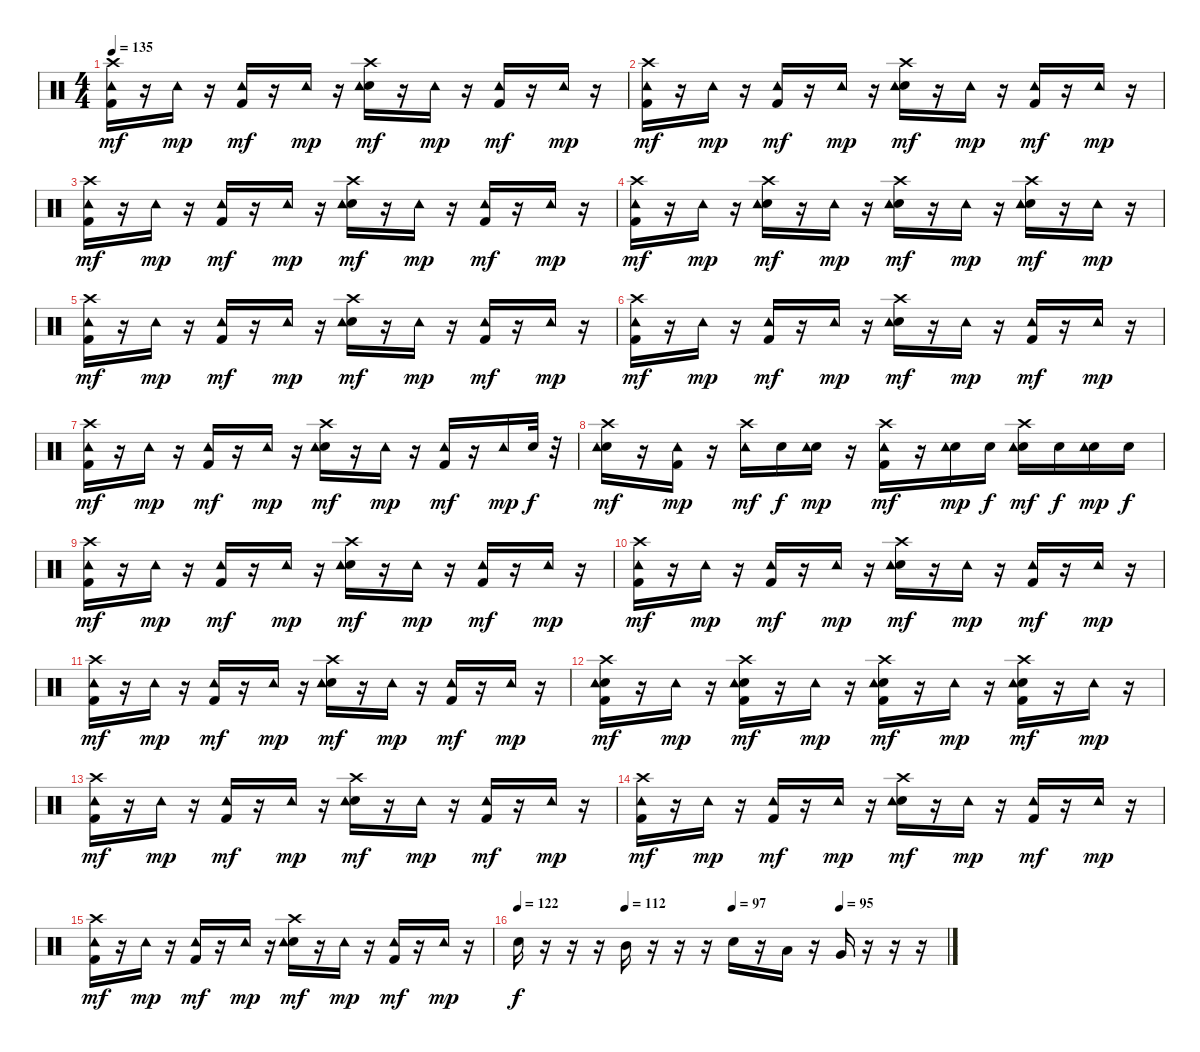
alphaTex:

\track (" " " ") {instrument percussion}
\staff {score}
\articulation defaults
\ts (4 4)
\tempo 135
\clef neutral
\ks c
("Crash high (hit)" "Tambourine (hit)" "Kick (hit) 2").16{dy mf} r.16 "Tambourine (hit)".16{dy mp} r.16 ("Tambourine (hit)" "Kick (hit) 2").16{dy mf} r.16 "Tambourine (hit)".16{dy mp} r.16 ("Crash high (hit)" "Electric Snare (hit)" "Tambourine (hit)").16{dy mf} r.16 "Tambourine (hit)".16{dy mp} r.16 ("Tambourine (hit)" "Kick (hit) 2").16{dy mf} r.16 "Tambourine (hit)".16{dy mp} r.16 |
("Crash high (hit)" "Tambourine (hit)" "Kick (hit) 2").16{dy mf} r.16 "Tambourine (hit)".16{dy mp} r.16 ("Tambourine (hit)" "Kick (hit) 2").16{dy mf} r.16 "Tambourine (hit)".16{dy mp} r.16 ("Crash high (hit)" "Electric Snare (hit)" "Tambourine (hit)").16{dy mf} r.16 "Tambourine (hit)".16{dy mp} r.16 ("Tambourine (hit)" "Kick (hit) 2").16{dy mf} r.16 "Tambourine (hit)".16{dy mp} r.16 |
("Crash high (hit)" "Tambourine (hit)" "Kick (hit) 2").16{dy mf} r.16 "Tambourine (hit)".16{dy mp} r.16 ("Tambourine (hit)" "Kick (hit) 2").16{dy mf} r.16 "Tambourine (hit)".16{dy mp} r.16 ("Crash high (hit)" "Electric Snare (hit)" "Tambourine (hit)").16{dy mf} r.16 "Tambourine (hit)".16{dy mp} r.16 ("Tambourine (hit)" "Kick (hit) 2").16{dy mf} r.16 "Tambourine (hit)".16{dy mp} r.16 |
("Crash high (hit)" "Tambourine (hit)" "Kick (hit) 2").16{dy mf} r.16 "Tambourine (hit)".16{dy mp} r.16 ("Crash high (hit)" "Electric Snare (hit)" "Tambourine (hit)").16{dy mf} r.16 "Tambourine (hit)".16{dy mp} r.16 ("Crash high (hit)" "Electric Snare (hit)" "Tambourine (hit)").16{dy mf} r.16 "Tambourine (hit)".16{dy mp} r.16 ("Crash high (hit)" "Electric Snare (hit)" "Tambourine (hit)").16{dy mf} r.16 "Tambourine (hit)".16{dy mp} r.16 |
("Crash high (hit)" "Tambourine (hit)" "Kick (hit) 2").16{dy mf} r.16 "Tambourine (hit)".16{dy mp} r.16 ("Tambourine (hit)" "Kick (hit) 2").16{dy mf} r.16 "Tambourine (hit)".16{dy mp} r.16 ("Crash high (hit)" "Electric Snare (hit)" "Tambourine (hit)").16{dy mf} r.16 "Tambourine (hit)".16{dy mp} r.16 ("Tambourine (hit)" "Kick (hit) 2").16{dy mf} r.16 "Tambourine (hit)".16{dy mp} r.16 |
("Crash high (hit)" "Tambourine (hit)" "Kick (hit) 2").16{dy mf} r.16 "Tambourine (hit)".16{dy mp} r.16 ("Tambourine (hit)" "Kick (hit) 2").16{dy mf} r.16 "Tambourine (hit)".16{dy mp} r.16 ("Crash high (hit)" "Electric Snare (hit)" "Tambourine (hit)").16{dy mf} r.16 "Tambourine (hit)".16{dy mp} r.16 ("Tambourine (hit)" "Kick (hit) 2").16{dy mf} r.16 "Tambourine (hit)".16{dy mp} r.16 |
("Crash high (hit)" "Tambourine (hit)" "Kick (hit) 2").16{dy mf} r.16 "Tambourine (hit)".16{dy mp} r.16 ("Tambourine (hit)" "Kick (hit) 2").16{dy mf} r.16 "Tambourine (hit)".16{dy mp} r.16 ("Crash high (hit)" "Electric Snare (hit)" "Tambourine (hit)").16{dy mf} r.16 "Tambourine (hit)".16{dy mp} r.16 ("Tambourine (hit)" "Kick (hit) 2").16{dy mf} r.16 "Tambourine (hit)".16{dy mp} "Electric Snare (hit)".32{dy f} r.32 |
("Crash high (hit)" "Electric Snare (hit)" "Tambourine (hit)").16{dy mf} r.16 ("Tambourine (hit)" "Kick (hit) 2").16{dy mp} r.16 ("Crash high (hit)" "Tambourine (hit)").16{dy mf} "Electric Snare (hit)".16{dy f} ("Electric Snare (hit)" "Tambourine (hit)").16{dy mp} r.16 ("Crash high (hit)" "Tambourine (hit)" "Kick (hit) 2").16{dy mf} r.16 ("Electric Snare (hit)" "Tambourine (hit)").16{dy mp} "Electric Snare (hit)".16{dy f} ("Crash high (hit)" "Electric Snare (hit)" "Tambourine (hit)").16{dy mf} "Electric Snare (hit)".16{dy f} ("Electric Snare (hit)" "Tambourine (hit)").16{dy mp} "Electric Snare (hit)".16{dy f} |
("Crash high (hit)" "Tambourine (hit)" "Kick (hit) 2").16{dy mf} r.16 "Tambourine (hit)".16{dy mp} r.16 ("Tambourine (hit)" "Kick (hit) 2").16{dy mf} r.16 "Tambourine (hit)".16{dy mp} r.16 ("Crash high (hit)" "Electric Snare (hit)" "Tambourine (hit)").16{dy mf} r.16 "Tambourine (hit)".16{dy mp} r.16 ("Tambourine (hit)" "Kick (hit) 2").16{dy mf} r.16 "Tambourine (hit)".16{dy mp} r.16 |
("Crash high (hit)" "Tambourine (hit)" "Kick (hit) 2").16{dy mf} r.16 "Tambourine (hit)".16{dy mp} r.16 ("Tambourine (hit)" "Kick (hit) 2").16{dy mf} r.16 "Tambourine (hit)".16{dy mp} r.16 ("Crash high (hit)" "Electric Snare (hit)" "Tambourine (hit)").16{dy mf} r.16 "Tambourine (hit)".16{dy mp} r.16 ("Tambourine (hit)" "Kick (hit) 2").16{dy mf} r.16 "Tambourine (hit)".16{dy mp} r.16 |
("Crash high (hit)" "Tambourine (hit)" "Kick (hit) 2").16{dy mf} r.16 "Tambourine (hit)".16{dy mp} r.16 ("Tambourine (hit)" "Kick (hit) 2").16{dy mf} r.16 "Tambourine (hit)".16{dy mp} r.16 ("Crash high (hit)" "Electric Snare (hit)" "Tambourine (hit)").16{dy mf} r.16 "Tambourine (hit)".16{dy mp} r.16 ("Tambourine (hit)" "Kick (hit) 2").16{dy mf} r.16 "Tambourine (hit)".16{dy mp} r.16 |
("Crash high (hit)" "Electric Snare (hit)" "Tambourine (hit)" "Kick (hit) 2").16{dy mf} r.16 "Tambourine (hit)".16{dy mp} r.16 ("Crash high (hit)" "Electric Snare (hit)" "Tambourine (hit)" "Kick (hit) 2").16{dy mf} r.16 "Tambourine (hit)".16{dy mp} r.16 ("Crash high (hit)" "Electric Snare (hit)" "Tambourine (hit)" "Kick (hit) 2").16{dy mf} r.16 "Tambourine (hit)".16{dy mp} r.16 ("Crash high (hit)" "Electric Snare (hit)" "Tambourine (hit)" "Kick (hit) 2").16{dy mf} r.16 "Tambourine (hit)".16{dy mp} r.16 |
("Crash high (hit)" "Tambourine (hit)" "Kick (hit) 2").16{dy mf} r.16 "Tambourine (hit)".16{dy mp} r.16 ("Tambourine (hit)" "Kick (hit) 2").16{dy mf} r.16 "Tambourine (hit)".16{dy mp} r.16 ("Crash high (hit)" "Electric Snare (hit)" "Tambourine (hit)").16{dy mf} r.16 "Tambourine (hit)".16{dy mp} r.16 ("Tambourine (hit)" "Kick (hit) 2").16{dy mf} r.16 "Tambourine (hit)".16{dy mp} r.16 |
("Crash high (hit)" "Tambourine (hit)" "Kick (hit) 2").16{dy mf} r.16 "Tambourine (hit)".16{dy mp} r.16 ("Tambourine (hit)" "Kick (hit) 2").16{dy mf} r.16 "Tambourine (hit)".16{dy mp} r.16 ("Crash high (hit)" "Electric Snare (hit)" "Tambourine (hit)").16{dy mf} r.16 "Tambourine (hit)".16{dy mp} r.16 ("Tambourine (hit)" "Kick (hit) 2").16{dy mf} r.16 "Tambourine (hit)".16{dy mp} r.16 |
("Crash high (hit)" "Tambourine (hit)" "Kick (hit) 2").16{dy mf} r.16 "Tambourine (hit)".16{dy mp} r.16 ("Tambourine (hit)" "Kick (hit) 2").16{dy mf} r.16 "Tambourine (hit)".16{dy mp} r.16 ("Crash high (hit)" "Electric Snare (hit)" "Tambourine (hit)").16{dy mf} r.16 "Tambourine (hit)".16{dy mp} r.16 ("Tambourine (hit)" "Kick (hit) 2").16{dy mf} r.16 "Tambourine (hit)".16{dy mp} r.16 |
\tempo 122
\tempo (112 0.25)
\tempo (97 0.5)
\tempo (95 0.75)
"Electric Snare (hit)".16{dy f} r.16 r.16 r.16 "Mid Tom (hit)".16 r.16 r.16 r.16 "Electric Snare (hit)".16 r.16 "Low Tom (hit)".16 r.16 "Very Low Tom (hit)".16 r.16 r.16 r.16
